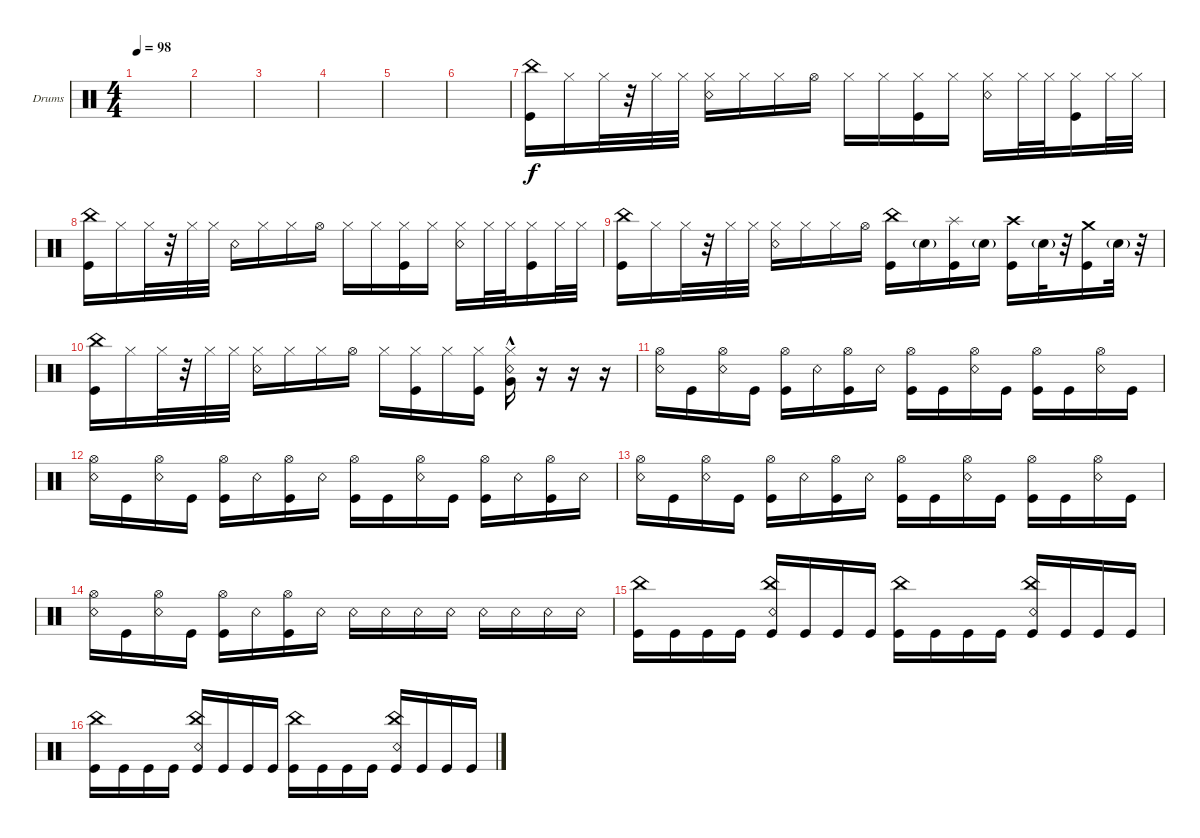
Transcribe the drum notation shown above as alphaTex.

\defaultSystemsLayout 4
\bracketExtendMode groupsimilarinstruments
\firstSystemTrackNameOrientation horizontal
\otherSystemsTrackNameOrientation horizontal
\track ("Drumkit" "Drums") {instrument percussion}
\staff {score}
\articulation defaults
\ts (4 4)
\tempo 98
\clef neutral
\scale
0.333333
\ks c
|
\scale
0.333333 |
\scale
0.333333 |
\scale
0.333333 |
\scale
0.333333 |
\scale
0.333333 |
\scale
0.333333 ("Kick (hit)" "China (hit)").16 "Hi-Hat (closed)".16 "Hi-Hat (closed)".32 r.32 "Hi-Hat (closed)".32 "Hi-Hat (closed)".32 ("Hi-Hat (closed)" "Snare (rim shot)").16 "Hi-Hat (closed)".16 "Hi-Hat (closed)".16 "Hi-Hat (open)".16 "Hi-Hat (closed)".16 "Hi-Hat (closed)".16 ("Hi-Hat (closed)" "Kick (hit)").16 "Hi-Hat (closed)".16 ("Hi-Hat (closed)" "Snare (rim shot)").16 "Hi-Hat (closed)".32 "Hi-Hat (closed)".32 ("Hi-Hat (closed)" "Kick (hit)").16 "Hi-Hat (closed)".32 "Hi-Hat (closed)".32 |
\scale
0.333333 ("Kick (hit)" "China (hit)").16 "Hi-Hat (closed)".16 "Hi-Hat (closed)".32 r.32 "Hi-Hat (closed)".32 "Hi-Hat (closed)".32 "Snare (rim shot)".16 "Hi-Hat (closed)".16 "Hi-Hat (closed)".16 "Hi-Hat (open)".16 "Hi-Hat (closed)".16 "Hi-Hat (closed)".16 ("Hi-Hat (closed)" "Kick (hit)").16 "Hi-Hat (closed)".16 ("Hi-Hat (closed)" "Snare (rim shot)").16 "Hi-Hat (closed)".32 "Hi-Hat (closed)".32 ("Hi-Hat (closed)" "Kick (hit)").16 "Hi-Hat (closed)".32 "Hi-Hat (closed)".32 |
\scale
0.333333 ("Kick (hit)" "China (hit)").16 "Hi-Hat (closed)".16 "Hi-Hat (closed)".32 r.32 "Hi-Hat (closed)".32 "Hi-Hat (closed)".32 ("Hi-Hat (closed)" "Snare (rim shot)").16 "Hi-Hat (closed)".16 "Hi-Hat (closed)".16 "Hi-Hat (open)".16 ("China (hit)" "Kick (hit)").16 "Snare (hit) 2"{g}.16 ("Kick (hit)" "Splash (hit)").16 "Snare (hit) 2"{g}.16 ("Kick (hit)" "Crash high (hit)").16 "Snare (hit) 2"{g}.32 r.32 ("Kick (hit)" "Crash medium (hit)").16 "Snare (hit) 2"{g}.32 r.32 |
\scale
0.333333 ("Kick (hit)" "China (hit)").16 "Hi-Hat (closed)".16 "Hi-Hat (closed)".32 r.32 "Hi-Hat (closed)".32 "Hi-Hat (closed)".32 ("Hi-Hat (closed)" "Snare (rim shot)").16 "Hi-Hat (closed)".16 "Hi-Hat (closed)".16 "Hi-Hat (open)".16 "Hi-Hat (closed)".16 ("Hi-Hat (closed)" "Kick (hit)").16 "Hi-Hat (closed)".16 ("Hi-Hat (closed)" "Kick (hit)").16 ("Hi-Hat (closed)" "Snare (rim shot)" "Very Low Tom (hit)"{hac}).16 r.16 r.16 r.16 |
\scale
0.333333 ("Snare (rim shot)" "Hi-Hat (open)").16 "Kick (hit)".16 ("Snare (rim shot)" "Hi-Hat (open)").16 "Kick (hit)".16 ("Kick (hit)" "Hi-Hat (open)").16 "Snare (rim shot)".16 ("Kick (hit)" "Hi-Hat (open)").16 "Snare (rim shot)".16 ("Kick (hit)" "Hi-Hat (open)").16 "Kick (hit)".16 ("Snare (rim shot)" "Hi-Hat (open)").16 "Kick (hit)".16 ("Kick (hit)" "Hi-Hat (open)").16 "Kick (hit)".16 ("Snare (rim shot)" "Hi-Hat (open)").16 "Kick (hit)".16 |
\scale
0.333333 ("Snare (rim shot)" "Hi-Hat (open)").16 "Kick (hit)".16 ("Snare (rim shot)" "Hi-Hat (open)").16 "Kick (hit)".16 ("Kick (hit)" "Hi-Hat (open)").16 "Snare (rim shot)".16 ("Kick (hit)" "Hi-Hat (open)").16 "Snare (rim shot)".16 ("Kick (hit)" "Hi-Hat (open)").16 "Kick (hit)".16 ("Snare (rim shot)" "Hi-Hat (open)").16 "Kick (hit)".16 ("Kick (hit)" "Hi-Hat (open)").16 "Snare (rim shot)".16 ("Kick (hit)" "Hi-Hat (open)").16 "Snare (rim shot)".16 |
\scale
0.333333 ("Snare (rim shot)" "Hi-Hat (open)").16 "Kick (hit)".16 ("Snare (rim shot)" "Hi-Hat (open)").16 "Kick (hit)".16 ("Kick (hit)" "Hi-Hat (open)").16 "Snare (rim shot)".16 ("Kick (hit)" "Hi-Hat (open)").16 "Snare (rim shot)".16 ("Kick (hit)" "Hi-Hat (open)").16 "Kick (hit)".16 ("Snare (rim shot)" "Hi-Hat (open)").16 "Kick (hit)".16 ("Kick (hit)" "Hi-Hat (open)").16 "Kick (hit)".16 ("Snare (rim shot)" "Hi-Hat (open)").16 "Kick (hit)".16 |
\scale
0.333333 ("Snare (rim shot)" "Hi-Hat (open)").16 "Kick (hit)".16 ("Snare (rim shot)" "Hi-Hat (open)").16 "Kick (hit)".16 ("Kick (hit)" "Hi-Hat (open)").16 "Snare (rim shot)".16 ("Kick (hit)" "Hi-Hat (open)").16 "Snare (rim shot)".16 "Snare (rim shot)".16 "Snare (rim shot)".16 "Snare (rim shot)".16 "Snare (rim shot)".16 "Snare (rim shot)".16 "Snare (rim shot)".16 "Snare (rim shot)".16 "Snare (rim shot)".16 |
\scale
0.333333 ("Kick (hit)" "China (hit)").16 "Kick (hit)".16 "Kick (hit)".16 "Kick (hit)".16 ("Kick (hit)" "China (hit)" "Snare (rim shot)").16 "Kick (hit)".16 "Kick (hit)".16 "Kick (hit)".16 ("Kick (hit)" "China (hit)").16 "Kick (hit)".16 "Kick (hit)".16 "Kick (hit)".16 ("Kick (hit)" "Snare (rim shot)" "China (hit)").16 "Kick (hit)".16 "Kick (hit)".16 "Kick (hit)".16 |
\scale
0.333333 ("Kick (hit)" "China (hit)").16 "Kick (hit)".16 "Kick (hit)".16 "Kick (hit)".16 ("Kick (hit)" "China (hit)" "Snare (rim shot)").16 "Kick (hit)".16 "Kick (hit)".16 "Kick (hit)".16 ("Kick (hit)" "China (hit)").16 "Kick (hit)".16 "Kick (hit)".16 "Kick (hit)".16 ("Kick (hit)" "Snare (rim shot)" "China (hit)").16 "Kick (hit)".16 "Kick (hit)".16 "Kick (hit)".16
